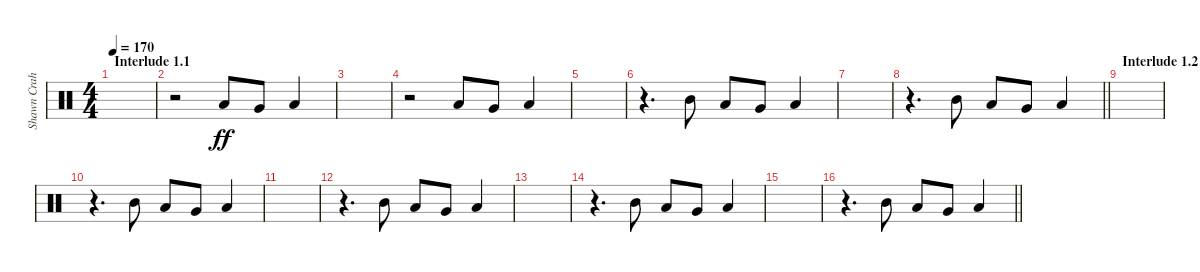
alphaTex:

\track ("Shawn Crahan" "Shawn Crah") {instrument percussion}
\staff {score}
\articulation defaults
\ts (4 4)
\section ("" "Interlude 1.1")
\tempo 170
\clef neutral
\ks c
|
r.2 "Low Tom (hit)".8{dy ff} "Very Low Tom (hit)".8 "Low Floor Tom (hit)".4 |
|
r.2 "Low Tom (hit)".8 "Very Low Tom (hit)".8 "Low Floor Tom (hit)".4 |
|
r.4{d} "Mid Tom (hit)".8 "Low Tom (hit)".8 "Very Low Tom (hit)".8 "Low Floor Tom (hit)".4 |
|
\barLineRight lightlight
r.4{d} "Mid Tom (hit)".8 "Low Tom (hit)".8 "Very Low Tom (hit)".8 "Low Floor Tom (hit)".4 |
\section ("" "Interlude 1.2")
|
r.4{d} "Mid Tom (hit)".8 "Low Tom (hit)".8 "Very Low Tom (hit)".8 "Low Floor Tom (hit)".4 |
|
r.4{d} "Mid Tom (hit)".8 "Low Tom (hit)".8 "Very Low Tom (hit)".8 "Low Floor Tom (hit)".4 |
|
r.4{d} "Mid Tom (hit)".8 "Low Tom (hit)".8 "Very Low Tom (hit)".8 "Low Floor Tom (hit)".4 |
|
\barLineRight lightlight
r.4{d} "Mid Tom (hit)".8 "Low Tom (hit)".8 "Very Low Tom (hit)".8 "Low Floor Tom (hit)".4
